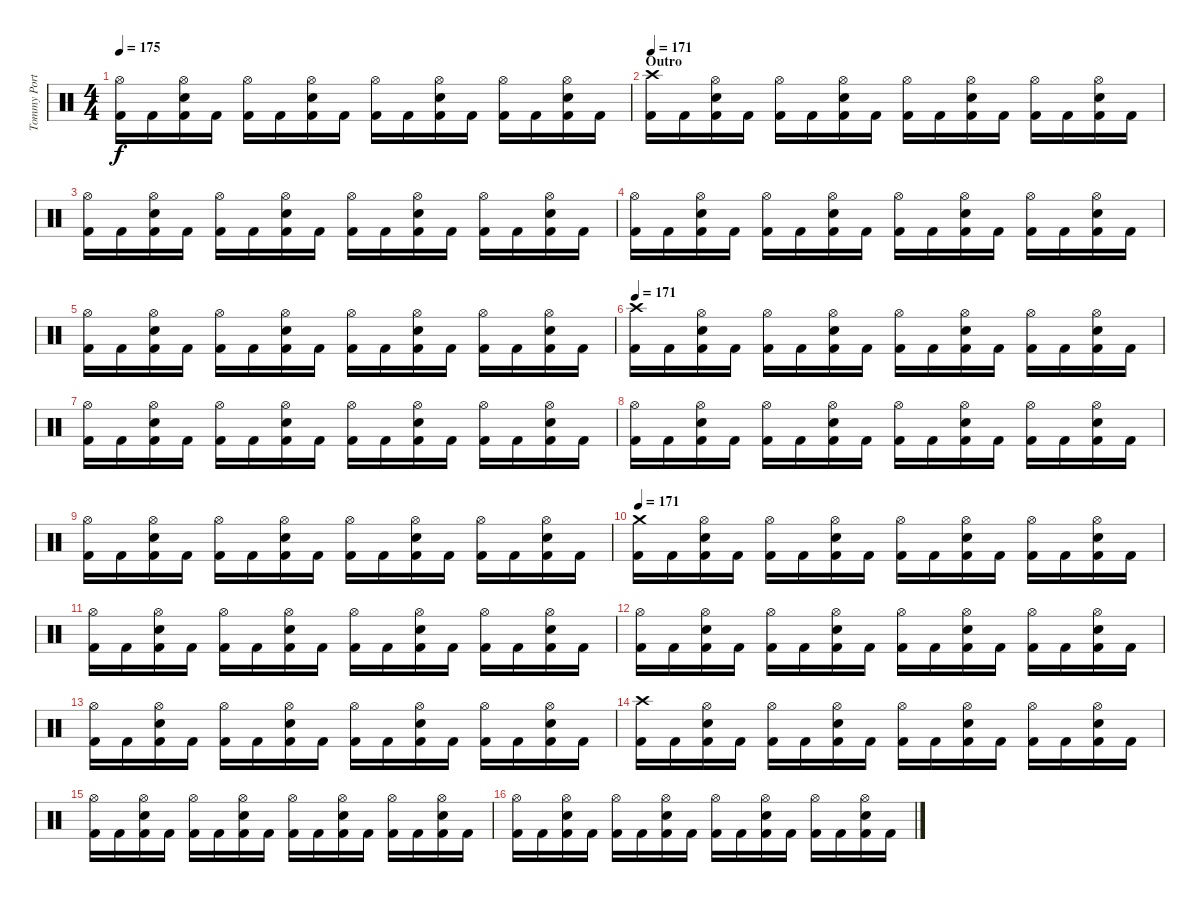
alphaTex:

\track ("Tommy Portimo" "Tommy Port") {instrument percussion}
\staff {score}
\articulation defaults
\ts (4 4)
\tempo 175
\clef neutral
\ks c
("Hi-Hat (open)" "Kick (hit) 2").16{dy f} "Kick (hit) 2".16 ("Hi-Hat (open)" "Snare (hit) 2" "Kick (hit) 2").16 "Kick (hit) 2".16 ("Hi-Hat (open)" "Kick (hit) 2").16 "Kick (hit) 2".16 ("Hi-Hat (open)" "Snare (hit) 2" "Kick (hit) 2").16 "Kick (hit) 2".16 ("Hi-Hat (open)" "Kick (hit) 2").16 "Kick (hit) 2".16 ("Hi-Hat (open)" "Snare (hit) 2" "Kick (hit) 2").16 "Kick (hit) 2".16 ("Hi-Hat (open)" "Kick (hit) 2").16 "Kick (hit) 2".16 ("Hi-Hat (open)" "Snare (hit) 2" "Kick (hit) 2").16 "Kick (hit) 2".16 |
\section ("" "Outro")
\tempo 171
("Crash high (hit)" "Kick (hit) 2").16 "Kick (hit) 2".16 ("Hi-Hat (open)" "Snare (hit) 2" "Kick (hit) 2").16 "Kick (hit) 2".16 ("Hi-Hat (open)" "Kick (hit) 2").16 "Kick (hit) 2".16 ("Hi-Hat (open)" "Snare (hit) 2" "Kick (hit) 2").16 "Kick (hit) 2".16 ("Hi-Hat (open)" "Kick (hit) 2").16 "Kick (hit) 2".16 ("Hi-Hat (open)" "Snare (hit) 2" "Kick (hit) 2").16 "Kick (hit) 2".16 ("Hi-Hat (open)" "Kick (hit) 2").16 "Kick (hit) 2".16 ("Hi-Hat (open)" "Snare (hit) 2" "Kick (hit) 2").16 "Kick (hit) 2".16 |
("Hi-Hat (open)" "Kick (hit) 2").16 "Kick (hit) 2".16 ("Hi-Hat (open)" "Snare (hit) 2" "Kick (hit) 2").16 "Kick (hit) 2".16 ("Hi-Hat (open)" "Kick (hit) 2").16 "Kick (hit) 2".16 ("Hi-Hat (open)" "Snare (hit) 2" "Kick (hit) 2").16 "Kick (hit) 2".16 ("Hi-Hat (open)" "Kick (hit) 2").16 "Kick (hit) 2".16 ("Hi-Hat (open)" "Snare (hit) 2" "Kick (hit) 2").16 "Kick (hit) 2".16 ("Hi-Hat (open)" "Kick (hit) 2").16 "Kick (hit) 2".16 ("Hi-Hat (open)" "Snare (hit) 2" "Kick (hit) 2").16 "Kick (hit) 2".16 |
("Hi-Hat (open)" "Kick (hit) 2").16 "Kick (hit) 2".16 ("Hi-Hat (open)" "Snare (hit) 2" "Kick (hit) 2").16 "Kick (hit) 2".16 ("Hi-Hat (open)" "Kick (hit) 2").16 "Kick (hit) 2".16 ("Hi-Hat (open)" "Snare (hit) 2" "Kick (hit) 2").16 "Kick (hit) 2".16 ("Hi-Hat (open)" "Kick (hit) 2").16 "Kick (hit) 2".16 ("Hi-Hat (open)" "Snare (hit) 2" "Kick (hit) 2").16 "Kick (hit) 2".16 ("Hi-Hat (open)" "Kick (hit) 2").16 "Kick (hit) 2".16 ("Hi-Hat (open)" "Snare (hit) 2" "Kick (hit) 2").16 "Kick (hit) 2".16 |
("Hi-Hat (open)" "Kick (hit) 2").16 "Kick (hit) 2".16 ("Hi-Hat (open)" "Snare (hit) 2" "Kick (hit) 2").16 "Kick (hit) 2".16 ("Hi-Hat (open)" "Kick (hit) 2").16 "Kick (hit) 2".16 ("Hi-Hat (open)" "Snare (hit) 2" "Kick (hit) 2").16 "Kick (hit) 2".16 ("Hi-Hat (open)" "Kick (hit) 2").16 "Kick (hit) 2".16 ("Hi-Hat (open)" "Snare (hit) 2" "Kick (hit) 2").16 "Kick (hit) 2".16 ("Hi-Hat (open)" "Kick (hit) 2").16 "Kick (hit) 2".16 ("Hi-Hat (open)" "Snare (hit) 2" "Kick (hit) 2").16 "Kick (hit) 2".16 |
\tempo 171
("Crash high (hit)" "Kick (hit) 2").16 "Kick (hit) 2".16 ("Hi-Hat (open)" "Snare (hit) 2" "Kick (hit) 2").16 "Kick (hit) 2".16 ("Hi-Hat (open)" "Kick (hit) 2").16 "Kick (hit) 2".16 ("Hi-Hat (open)" "Snare (hit) 2" "Kick (hit) 2").16 "Kick (hit) 2".16 ("Hi-Hat (open)" "Kick (hit) 2").16 "Kick (hit) 2".16 ("Hi-Hat (open)" "Snare (hit) 2" "Kick (hit) 2").16 "Kick (hit) 2".16 ("Hi-Hat (open)" "Kick (hit) 2").16 "Kick (hit) 2".16 ("Hi-Hat (open)" "Snare (hit) 2" "Kick (hit) 2").16 "Kick (hit) 2".16 |
("Hi-Hat (open)" "Kick (hit) 2").16 "Kick (hit) 2".16 ("Hi-Hat (open)" "Snare (hit) 2" "Kick (hit) 2").16 "Kick (hit) 2".16 ("Hi-Hat (open)" "Kick (hit) 2").16 "Kick (hit) 2".16 ("Hi-Hat (open)" "Snare (hit) 2" "Kick (hit) 2").16 "Kick (hit) 2".16 ("Hi-Hat (open)" "Kick (hit) 2").16 "Kick (hit) 2".16 ("Hi-Hat (open)" "Snare (hit) 2" "Kick (hit) 2").16 "Kick (hit) 2".16 ("Hi-Hat (open)" "Kick (hit) 2").16 "Kick (hit) 2".16 ("Hi-Hat (open)" "Snare (hit) 2" "Kick (hit) 2").16 "Kick (hit) 2".16 |
("Hi-Hat (open)" "Kick (hit) 2").16 "Kick (hit) 2".16 ("Hi-Hat (open)" "Snare (hit) 2" "Kick (hit) 2").16 "Kick (hit) 2".16 ("Hi-Hat (open)" "Kick (hit) 2").16 "Kick (hit) 2".16 ("Hi-Hat (open)" "Snare (hit) 2" "Kick (hit) 2").16 "Kick (hit) 2".16 ("Hi-Hat (open)" "Kick (hit) 2").16 "Kick (hit) 2".16 ("Hi-Hat (open)" "Snare (hit) 2" "Kick (hit) 2").16 "Kick (hit) 2".16 ("Hi-Hat (open)" "Kick (hit) 2").16 "Kick (hit) 2".16 ("Hi-Hat (open)" "Snare (hit) 2" "Kick (hit) 2").16 "Kick (hit) 2".16 |
("Hi-Hat (open)" "Kick (hit) 2").16 "Kick (hit) 2".16 ("Hi-Hat (open)" "Snare (hit) 2" "Kick (hit) 2").16 "Kick (hit) 2".16 ("Hi-Hat (open)" "Kick (hit) 2").16 "Kick (hit) 2".16 ("Hi-Hat (open)" "Snare (hit) 2" "Kick (hit) 2").16 "Kick (hit) 2".16 ("Hi-Hat (open)" "Kick (hit) 2").16 "Kick (hit) 2".16 ("Hi-Hat (open)" "Snare (hit) 2" "Kick (hit) 2").16 "Kick (hit) 2".16 ("Hi-Hat (open)" "Kick (hit) 2").16 "Kick (hit) 2".16 ("Hi-Hat (open)" "Snare (hit) 2" "Kick (hit) 2").16 "Kick (hit) 2".16 |
\tempo 171
("Crash medium (hit)" "Kick (hit) 2").16 "Kick (hit) 2".16 ("Hi-Hat (open)" "Snare (hit) 2" "Kick (hit) 2").16 "Kick (hit) 2".16 ("Hi-Hat (open)" "Kick (hit) 2").16 "Kick (hit) 2".16 ("Hi-Hat (open)" "Snare (hit) 2" "Kick (hit) 2").16 "Kick (hit) 2".16 ("Hi-Hat (open)" "Kick (hit) 2").16 "Kick (hit) 2".16 ("Hi-Hat (open)" "Snare (hit) 2" "Kick (hit) 2").16 "Kick (hit) 2".16 ("Hi-Hat (open)" "Kick (hit) 2").16 "Kick (hit) 2".16 ("Hi-Hat (open)" "Snare (hit) 2" "Kick (hit) 2").16 "Kick (hit) 2".16 |
("Hi-Hat (open)" "Kick (hit) 2").16 "Kick (hit) 2".16 ("Hi-Hat (open)" "Snare (hit) 2" "Kick (hit) 2").16 "Kick (hit) 2".16 ("Hi-Hat (open)" "Kick (hit) 2").16 "Kick (hit) 2".16 ("Hi-Hat (open)" "Snare (hit) 2" "Kick (hit) 2").16 "Kick (hit) 2".16 ("Hi-Hat (open)" "Kick (hit) 2").16 "Kick (hit) 2".16 ("Hi-Hat (open)" "Snare (hit) 2" "Kick (hit) 2").16 "Kick (hit) 2".16 ("Hi-Hat (open)" "Kick (hit) 2").16 "Kick (hit) 2".16 ("Hi-Hat (open)" "Snare (hit) 2" "Kick (hit) 2").16 "Kick (hit) 2".16 |
("Hi-Hat (open)" "Kick (hit) 2").16 "Kick (hit) 2".16 ("Hi-Hat (open)" "Snare (hit) 2" "Kick (hit) 2").16 "Kick (hit) 2".16 ("Hi-Hat (open)" "Kick (hit) 2").16 "Kick (hit) 2".16 ("Hi-Hat (open)" "Snare (hit) 2" "Kick (hit) 2").16 "Kick (hit) 2".16 ("Hi-Hat (open)" "Kick (hit) 2").16 "Kick (hit) 2".16 ("Hi-Hat (open)" "Snare (hit) 2" "Kick (hit) 2").16 "Kick (hit) 2".16 ("Hi-Hat (open)" "Kick (hit) 2").16 "Kick (hit) 2".16 ("Hi-Hat (open)" "Snare (hit) 2" "Kick (hit) 2").16 "Kick (hit) 2".16 |
("Hi-Hat (open)" "Kick (hit) 2").16 "Kick (hit) 2".16 ("Hi-Hat (open)" "Snare (hit) 2" "Kick (hit) 2").16 "Kick (hit) 2".16 ("Hi-Hat (open)" "Kick (hit) 2").16 "Kick (hit) 2".16 ("Hi-Hat (open)" "Snare (hit) 2" "Kick (hit) 2").16 "Kick (hit) 2".16 ("Hi-Hat (open)" "Kick (hit) 2").16 "Kick (hit) 2".16 ("Hi-Hat (open)" "Snare (hit) 2" "Kick (hit) 2").16 "Kick (hit) 2".16 ("Hi-Hat (open)" "Kick (hit) 2").16 "Kick (hit) 2".16 ("Hi-Hat (open)" "Snare (hit) 2" "Kick (hit) 2").16 "Kick (hit) 2".16 |
("Crash high (hit)" "Kick (hit) 2").16 "Kick (hit) 2".16 ("Hi-Hat (open)" "Snare (hit) 2" "Kick (hit) 2").16 "Kick (hit) 2".16 ("Hi-Hat (open)" "Kick (hit) 2").16 "Kick (hit) 2".16 ("Hi-Hat (open)" "Snare (hit) 2" "Kick (hit) 2").16 "Kick (hit) 2".16 ("Hi-Hat (open)" "Kick (hit) 2").16 "Kick (hit) 2".16 ("Hi-Hat (open)" "Snare (hit) 2" "Kick (hit) 2").16 "Kick (hit) 2".16 ("Hi-Hat (open)" "Kick (hit) 2").16 "Kick (hit) 2".16 ("Hi-Hat (open)" "Snare (hit) 2" "Kick (hit) 2").16 "Kick (hit) 2".16 |
("Hi-Hat (open)" "Kick (hit) 2").16 "Kick (hit) 2".16 ("Hi-Hat (open)" "Snare (hit) 2" "Kick (hit) 2").16 "Kick (hit) 2".16 ("Hi-Hat (open)" "Kick (hit) 2").16 "Kick (hit) 2".16 ("Hi-Hat (open)" "Snare (hit) 2" "Kick (hit) 2").16 "Kick (hit) 2".16 ("Hi-Hat (open)" "Kick (hit) 2").16 "Kick (hit) 2".16 ("Hi-Hat (open)" "Snare (hit) 2" "Kick (hit) 2").16 "Kick (hit) 2".16 ("Hi-Hat (open)" "Kick (hit) 2").16 "Kick (hit) 2".16 ("Hi-Hat (open)" "Snare (hit) 2" "Kick (hit) 2").16 "Kick (hit) 2".16 |
("Hi-Hat (open)" "Kick (hit) 2").16 "Kick (hit) 2".16 ("Hi-Hat (open)" "Snare (hit) 2" "Kick (hit) 2").16 "Kick (hit) 2".16 ("Hi-Hat (open)" "Kick (hit) 2").16 "Kick (hit) 2".16 ("Hi-Hat (open)" "Snare (hit) 2" "Kick (hit) 2").16 "Kick (hit) 2".16 ("Hi-Hat (open)" "Kick (hit) 2").16 "Kick (hit) 2".16 ("Hi-Hat (open)" "Snare (hit) 2" "Kick (hit) 2").16 "Kick (hit) 2".16 ("Hi-Hat (open)" "Kick (hit) 2").16 "Kick (hit) 2".16 ("Hi-Hat (open)" "Snare (hit) 2" "Kick (hit) 2").16 "Kick (hit) 2".16
